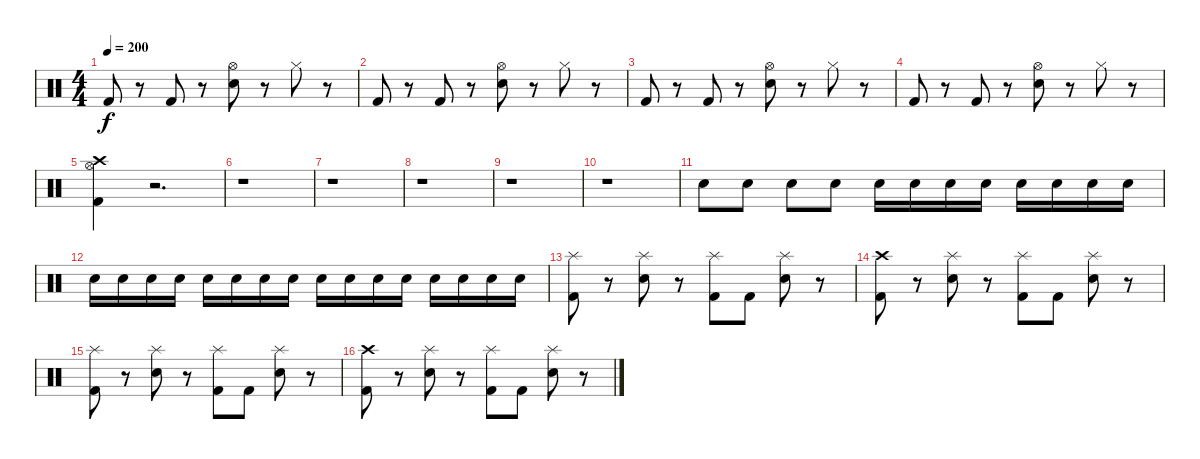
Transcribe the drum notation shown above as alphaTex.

\track "" {instrument percussion}
\staff {score}
\articulation defaults
\ts (4 4)
\tempo 200
\clef neutral
\ks c "Kick (hit) 2".8{dy f}
r.8 "Kick (hit) 2".8 r.8 ("Hi-Hat (open)" "Electric Snare (hit)").8 r.8 "Hi-Hat (closed)".8 r.8 |
"Kick (hit) 2".8 r.8 "Kick (hit) 2".8 r.8 ("Hi-Hat (open)" "Electric Snare (hit)").8 r.8 "Hi-Hat (closed)".8 r.8 |
"Kick (hit) 2".8 r.8 "Kick (hit) 2".8 r.8 ("Hi-Hat (open)" "Electric Snare (hit)").8 r.8 "Hi-Hat (closed)".8 r.8 |
"Kick (hit) 2".8 r.8 "Kick (hit) 2".8 r.8 ("Hi-Hat (open)" "Electric Snare (hit)").8 r.8 "Hi-Hat (closed)".8 r.8 |
("Hi-Hat (open)" "Kick (hit) 2" "Crash high (hit)").4 r.2{d} |
r.1 |
r.1 |
r.1 |
r.1 |
r.1 |
"Electric Snare (hit)".8 "Electric Snare (hit)".8 "Electric Snare (hit)".8 "Electric Snare (hit)".8 "Electric Snare (hit)".16 "Electric Snare (hit)".16 "Electric Snare (hit)".16 "Electric Snare (hit)".16 "Electric Snare (hit)".16 "Electric Snare (hit)".16 "Electric Snare (hit)".16 "Electric Snare (hit)".16 |
"Electric Snare (hit)".16 "Electric Snare (hit)".16 "Electric Snare (hit)".16 "Electric Snare (hit)".16 "Electric Snare (hit)".16 "Electric Snare (hit)".16 "Electric Snare (hit)".16 "Electric Snare (hit)".16 "Electric Snare (hit)".16 "Electric Snare (hit)".16 "Electric Snare (hit)".16 "Electric Snare (hit)".16 "Electric Snare (hit)".16 "Electric Snare (hit)".16 "Electric Snare (hit)".16 "Electric Snare (hit)".16 |
("Splash (hit)" "Kick (hit) 2").8 r.8 ("Splash (hit)" "Electric Snare (hit)").8 r.8 ("Splash (hit)" "Kick (hit) 2").8 "Kick (hit) 2".8 ("Splash (hit)" "Electric Snare (hit)").8 r.8 |
("Crash high (hit)" "Kick (hit) 2").8 r.8 ("Splash (hit)" "Electric Snare (hit)").8 r.8 ("Splash (hit)" "Kick (hit) 2").8 "Kick (hit) 2".8 ("Splash (hit)" "Electric Snare (hit)").8 r.8 |
("Splash (hit)" "Kick (hit) 2").8 r.8 ("Splash (hit)" "Electric Snare (hit)").8 r.8 ("Splash (hit)" "Kick (hit) 2").8 "Kick (hit) 2".8 ("Splash (hit)" "Electric Snare (hit)").8 r.8 |
("Crash high (hit)" "Kick (hit) 2").8 r.8 ("Splash (hit)" "Electric Snare (hit)").8 r.8 ("Splash (hit)" "Kick (hit) 2").8 "Kick (hit) 2".8 ("Splash (hit)" "Electric Snare (hit)").8 r.8
